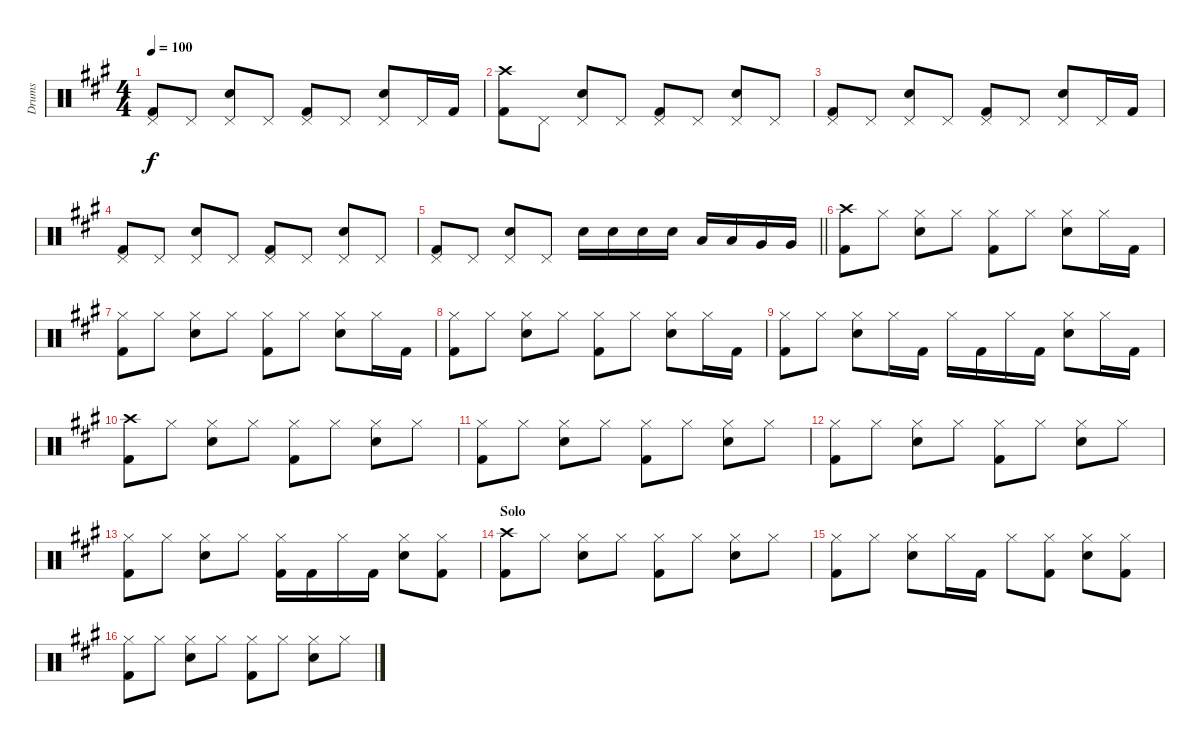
\track ("Drums" "Drums") {instrument percussion}
\staff {score}
\articulation defaults
\ts (4 4)
\tempo 100
\clef neutral
\ks f#minor
("Pedal Hi-Hat (hit)" "Kick (hit) 2").8{dy f} "Pedal Hi-Hat (hit)".8 ("Pedal Hi-Hat (hit)" "Snare (hit) 2").8 "Pedal Hi-Hat (hit)".8 ("Pedal Hi-Hat (hit)" "Kick (hit) 2").8 "Pedal Hi-Hat (hit)".8 ("Pedal Hi-Hat (hit)" "Snare (hit) 2").8 "Pedal Hi-Hat (hit)".16 "Kick (hit) 2".16 |
("Crash high (hit)" "Kick (hit) 2").8 "Pedal Hi-Hat (hit)".8 ("Pedal Hi-Hat (hit)" "Snare (hit) 2").8 "Pedal Hi-Hat (hit)".8 ("Pedal Hi-Hat (hit)" "Kick (hit) 2").8 "Pedal Hi-Hat (hit)".8 ("Pedal Hi-Hat (hit)" "Snare (hit) 2").8 "Pedal Hi-Hat (hit)".8 |
("Pedal Hi-Hat (hit)" "Kick (hit) 2").8 "Pedal Hi-Hat (hit)".8 ("Pedal Hi-Hat (hit)" "Snare (hit) 2").8 "Pedal Hi-Hat (hit)".8 ("Pedal Hi-Hat (hit)" "Kick (hit) 2").8 "Pedal Hi-Hat (hit)".8 ("Pedal Hi-Hat (hit)" "Snare (hit) 2").8 "Pedal Hi-Hat (hit)".16 "Kick (hit) 2".16 |
("Pedal Hi-Hat (hit)" "Kick (hit) 2").8 "Pedal Hi-Hat (hit)".8 ("Pedal Hi-Hat (hit)" "Snare (hit) 2").8 "Pedal Hi-Hat (hit)".8 ("Pedal Hi-Hat (hit)" "Kick (hit) 2").8 "Pedal Hi-Hat (hit)".8 ("Pedal Hi-Hat (hit)" "Snare (hit) 2").8 "Pedal Hi-Hat (hit)".8 |
\barLineRight lightlight
("Pedal Hi-Hat (hit)" "Kick (hit) 2").8 "Pedal Hi-Hat (hit)".8 ("Pedal Hi-Hat (hit)" "Snare (hit) 2").8 "Pedal Hi-Hat (hit)".8 "Snare (hit) 2".16 "Snare (hit) 2".16 "Snare (hit) 2".16 "Snare (hit) 2".16 "Low Tom (hit)".16 "Low Tom (hit)".16 "Very Low Tom (hit)".16 "Very Low Tom (hit)".16 |
("Crash high (hit)" "Kick (hit) 2").8 "Hi-Hat (closed)".8 ("Hi-Hat (closed)" "Snare (hit) 2").8 "Hi-Hat (closed)".8 ("Hi-Hat (closed)" "Kick (hit) 2").8 "Hi-Hat (closed)".8 ("Hi-Hat (closed)" "Snare (hit) 2").8 "Hi-Hat (closed)".16 "Kick (hit) 2".16 |
("Hi-Hat (closed)" "Kick (hit) 2").8 "Hi-Hat (closed)".8 ("Hi-Hat (closed)" "Snare (hit) 2").8 "Hi-Hat (closed)".8 ("Hi-Hat (closed)" "Kick (hit) 2").8 "Hi-Hat (closed)".8 ("Hi-Hat (closed)" "Snare (hit) 2").8 "Hi-Hat (closed)".16 "Kick (hit) 2".16 |
("Hi-Hat (closed)" "Kick (hit) 2").8 "Hi-Hat (closed)".8 ("Hi-Hat (closed)" "Snare (hit) 2").8 "Hi-Hat (closed)".8 ("Hi-Hat (closed)" "Kick (hit) 2").8 "Hi-Hat (closed)".8 ("Hi-Hat (closed)" "Snare (hit) 2").8 "Hi-Hat (closed)".16 "Kick (hit) 2".16 |
("Hi-Hat (closed)" "Kick (hit) 2").8 "Hi-Hat (closed)".8 ("Hi-Hat (closed)" "Snare (hit) 2").8 "Hi-Hat (closed)".16 "Kick (hit) 2".16 "Hi-Hat (closed)".16 "Kick (hit) 2".16 "Hi-Hat (closed)".16 "Kick (hit) 2".16 ("Hi-Hat (closed)" "Snare (hit) 2").8 "Hi-Hat (closed)".16 "Kick (hit) 2".16 |
("Crash high (hit)" "Kick (hit) 2").8 "Hi-Hat (closed)".8 ("Hi-Hat (closed)" "Snare (hit) 2").8 "Hi-Hat (closed)".8 ("Hi-Hat (closed)" "Kick (hit) 2").8 "Hi-Hat (closed)".8 ("Hi-Hat (closed)" "Snare (hit) 2").8 "Hi-Hat (closed)".8 |
("Hi-Hat (closed)" "Kick (hit) 2").8 "Hi-Hat (closed)".8 ("Hi-Hat (closed)" "Snare (hit) 2").8 "Hi-Hat (closed)".8 ("Hi-Hat (closed)" "Kick (hit) 2").8 "Hi-Hat (closed)".8 ("Hi-Hat (closed)" "Snare (hit) 2").8 "Hi-Hat (closed)".8 |
("Hi-Hat (closed)" "Kick (hit) 2").8 "Hi-Hat (closed)".8 ("Hi-Hat (closed)" "Snare (hit) 2").8 "Hi-Hat (closed)".8 ("Hi-Hat (closed)" "Kick (hit) 2").8 "Hi-Hat (closed)".8 ("Hi-Hat (closed)" "Snare (hit) 2").8 "Hi-Hat (closed)".8 |
("Hi-Hat (closed)" "Kick (hit) 2").8 "Hi-Hat (closed)".8 ("Hi-Hat (closed)" "Snare (hit) 2").8 "Hi-Hat (closed)".8 ("Hi-Hat (closed)" "Kick (hit) 2").16 "Kick (hit) 2".16 "Hi-Hat (closed)".16 "Kick (hit) 2".16 ("Hi-Hat (closed)" "Snare (hit) 2").8 ("Hi-Hat (closed)" "Kick (hit) 2").8 |
\section ("" "Solo")
("Crash high (hit)" "Kick (hit) 2").8 "Hi-Hat (closed)".8 ("Hi-Hat (closed)" "Snare (hit) 2").8 "Hi-Hat (closed)".8 ("Hi-Hat (closed)" "Kick (hit) 2").8 "Hi-Hat (closed)".8 ("Hi-Hat (closed)" "Snare (hit) 2").8 "Hi-Hat (closed)".8 |
("Hi-Hat (closed)" "Kick (hit) 2").8 "Hi-Hat (closed)".8 ("Hi-Hat (closed)" "Snare (hit) 2").8 "Hi-Hat (closed)".16 "Kick (hit) 2".16 "Hi-Hat (closed)".8 ("Hi-Hat (closed)" "Kick (hit) 2").8 ("Hi-Hat (closed)" "Snare (hit) 2").8 ("Hi-Hat (closed)" "Kick (hit) 2").8 |
("Hi-Hat (closed)" "Kick (hit) 2").8 "Hi-Hat (closed)".8 ("Hi-Hat (closed)" "Snare (hit) 2").8 "Hi-Hat (closed)".8 ("Hi-Hat (closed)" "Kick (hit) 2").8 "Hi-Hat (closed)".8 ("Hi-Hat (closed)" "Snare (hit) 2").8 "Hi-Hat (closed)".8
